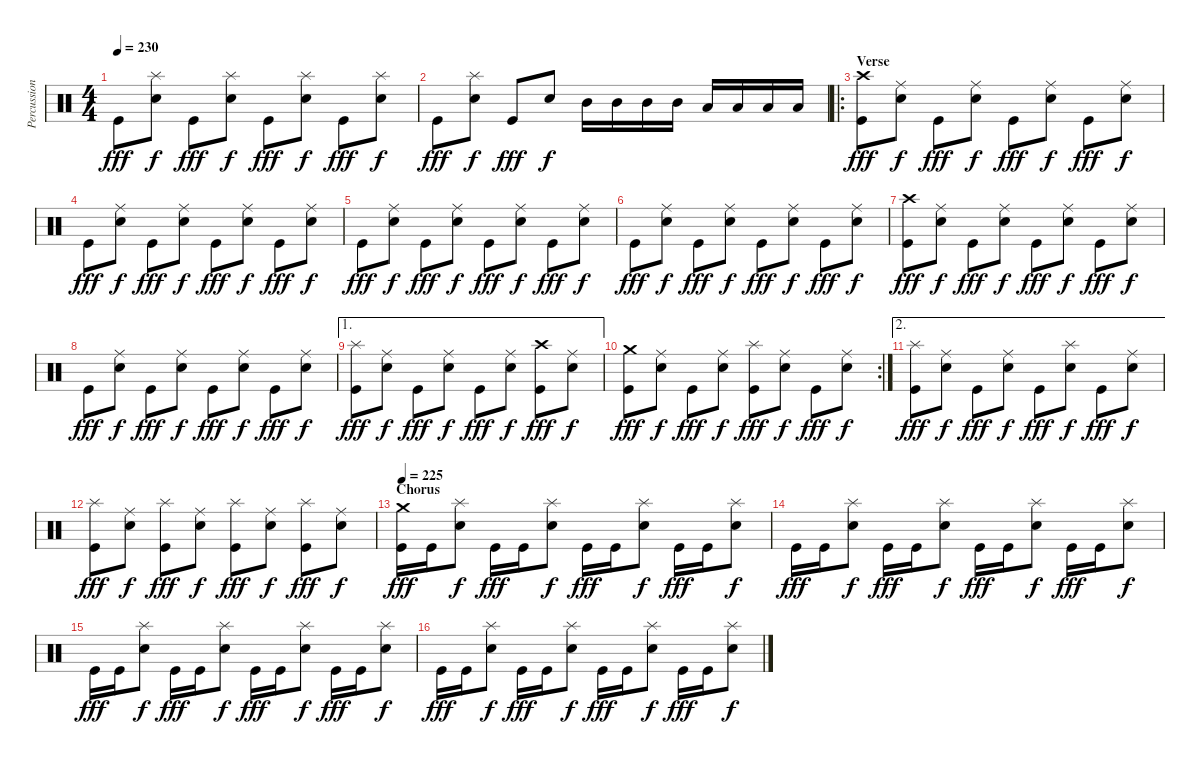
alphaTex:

\track ("Percussion" "Percussion") {instrument percussion}
\staff {score}
\articulation defaults
\ts (4 4)
\tempo 230
\clef neutral
\ks c "Kick (hit)".8{dy fff}
("Splash (hit)" "Electric Snare (hit)").8{dy f} "Kick (hit)".8{dy fff} ("Splash (hit)" "Electric Snare (hit)").8{dy f} "Kick (hit)".8{dy fff} ("Splash (hit)" "Electric Snare (hit)").8{dy f} "Kick (hit)".8{dy fff} ("Splash (hit)" "Electric Snare (hit)").8{dy f} |
"Kick (hit)".8{dy fff} ("Splash (hit)" "Electric Snare (hit)").8{dy f} "Kick (hit)".8{dy fff} "Electric Snare (hit)".8{dy f} "Mid Tom (hit)".16 "Mid Tom (hit)".16 "Mid Tom (hit)".16 "Mid Tom (hit)".16 "Low Tom (hit)".16 "Low Tom (hit)".16 "Low Tom (hit)".16 "Low Tom (hit)".16 |
\ro
\section ("" "Verse")
("Crash high (hit)" "Kick (hit)").8{dy fff} ("Ride (middle)" "Electric Snare (hit)").8{dy f} "Kick (hit)".8{dy fff} ("Ride (middle)" "Electric Snare (hit)").8{dy f} "Kick (hit)".8{dy fff} ("Ride (middle)" "Electric Snare (hit)").8{dy f} "Kick (hit)".8{dy fff} ("Ride (middle)" "Electric Snare (hit)").8{dy f} |
"Kick (hit)".8{dy fff} ("Ride (middle)" "Electric Snare (hit)").8{dy f} "Kick (hit)".8{dy fff} ("Ride (middle)" "Electric Snare (hit)").8{dy f} "Kick (hit)".8{dy fff} ("Ride (middle)" "Electric Snare (hit)").8{dy f} "Kick (hit)".8{dy fff} ("Ride (middle)" "Electric Snare (hit)").8{dy f} |
"Kick (hit)".8{dy fff} ("Ride (middle)" "Electric Snare (hit)").8{dy f} "Kick (hit)".8{dy fff} ("Ride (middle)" "Electric Snare (hit)").8{dy f} "Kick (hit)".8{dy fff} ("Ride (middle)" "Electric Snare (hit)").8{dy f} "Kick (hit)".8{dy fff} ("Ride (middle)" "Electric Snare (hit)").8{dy f} |
"Kick (hit)".8{dy fff} ("Ride (middle)" "Electric Snare (hit)").8{dy f} "Kick (hit)".8{dy fff} ("Ride (middle)" "Electric Snare (hit)").8{dy f} "Kick (hit)".8{dy fff} ("Ride (middle)" "Electric Snare (hit)").8{dy f} "Kick (hit)".8{dy fff} ("Ride (middle)" "Electric Snare (hit)").8{dy f} |
("Crash high (hit)" "Kick (hit)").8{dy fff} ("Ride (middle)" "Electric Snare (hit)").8{dy f} "Kick (hit)".8{dy fff} ("Ride (middle)" "Electric Snare (hit)").8{dy f} "Kick (hit)".8{dy fff} ("Ride (middle)" "Electric Snare (hit)").8{dy f} "Kick (hit)".8{dy fff} ("Ride (middle)" "Electric Snare (hit)").8{dy f} |
"Kick (hit)".8{dy fff} ("Ride (middle)" "Electric Snare (hit)").8{dy f} "Kick (hit)".8{dy fff} ("Ride (middle)" "Electric Snare (hit)").8{dy f} "Kick (hit)".8{dy fff} ("Ride (middle)" "Electric Snare (hit)").8{dy f} "Kick (hit)".8{dy fff} ("Ride (middle)" "Electric Snare (hit)").8{dy f} |
\ae 1
("Splash (hit)" "Kick (hit)").8{dy fff} ("Ride (middle)" "Electric Snare (hit)").8{dy f} "Kick (hit)".8{dy fff} ("Ride (middle)" "Electric Snare (hit)").8{dy f} "Kick (hit)".8{dy fff} ("Ride (middle)" "Electric Snare (hit)").8{dy f} ("Crash high (hit)" "Kick (hit)").8{dy fff} ("Ride (middle)" "Electric Snare (hit)").8{dy f} |
\rc 2
("Crash medium (hit)" "Kick (hit)").8{dy fff} ("Ride (middle)" "Electric Snare (hit)").8{dy f} "Kick (hit)".8{dy fff} ("Ride (middle)" "Electric Snare (hit)").8{dy f} ("Splash (hit)" "Kick (hit)").8{dy fff} ("Ride (middle)" "Electric Snare (hit)").8{dy f} "Kick (hit)".8{dy fff} ("Ride (middle)" "Electric Snare (hit)").8{dy f} |
\ae 2
("Splash (hit)" "Kick (hit)").8{dy fff} ("Ride (middle)" "Electric Snare (hit)").8{dy f} "Kick (hit)".8{dy fff} ("Ride (middle)" "Electric Snare (hit)").8{dy f} "Kick (hit)".8{dy fff} ("Splash (hit)" "Electric Snare (hit)").8{dy f} "Kick (hit)".8{dy fff} ("Ride (middle)" "Electric Snare (hit)").8{dy f} |
("Splash (hit)" "Kick (hit)").8{dy fff} ("Ride (middle)" "Electric Snare (hit)").8{dy f} ("Splash (hit)" "Kick (hit)").8{dy fff} ("Ride (middle)" "Electric Snare (hit)").8{dy f} ("Splash (hit)" "Kick (hit)").8{dy fff} ("Ride (middle)" "Electric Snare (hit)").8{dy f} ("Splash (hit)" "Kick (hit)").8{dy fff} ("Ride (middle)" "Electric Snare (hit)").8{dy f} |
\section ("" "Chorus")
\tempo 225
("Crash medium (hit)" "Kick (hit)").16{dy fff} "Kick (hit)".16 ("Splash (hit)" "Electric Snare (hit)").8{dy f} "Kick (hit)".16{dy fff} "Kick (hit)".16 ("Splash (hit)" "Electric Snare (hit)").8{dy f} "Kick (hit)".16{dy fff} "Kick (hit)".16 ("Splash (hit)" "Electric Snare (hit)").8{dy f} "Kick (hit)".16{dy fff} "Kick (hit)".16 ("Splash (hit)" "Electric Snare (hit)").8{dy f} |
"Kick (hit)".16{dy fff} "Kick (hit)".16 ("Splash (hit)" "Electric Snare (hit)").8{dy f} "Kick (hit)".16{dy fff} "Kick (hit)".16 ("Splash (hit)" "Electric Snare (hit)").8{dy f} "Kick (hit)".16{dy fff} "Kick (hit)".16 ("Splash (hit)" "Electric Snare (hit)").8{dy f} "Kick (hit)".16{dy fff} "Kick (hit)".16 ("Splash (hit)" "Electric Snare (hit)").8{dy f} |
"Kick (hit)".16{dy fff} "Kick (hit)".16 ("Splash (hit)" "Electric Snare (hit)").8{dy f} "Kick (hit)".16{dy fff} "Kick (hit)".16 ("Splash (hit)" "Electric Snare (hit)").8{dy f} "Kick (hit)".16{dy fff} "Kick (hit)".16 ("Splash (hit)" "Electric Snare (hit)").8{dy f} "Kick (hit)".16{dy fff} "Kick (hit)".16 ("Splash (hit)" "Electric Snare (hit)").8{dy f} |
"Kick (hit)".16{dy fff} "Kick (hit)".16 ("Splash (hit)" "Electric Snare (hit)").8{dy f} "Kick (hit)".16{dy fff} "Kick (hit)".16 ("Splash (hit)" "Electric Snare (hit)").8{dy f} "Kick (hit)".16{dy fff} "Kick (hit)".16 ("Splash (hit)" "Electric Snare (hit)").8{dy f} "Kick (hit)".16{dy fff} "Kick (hit)".16 ("Splash (hit)" "Electric Snare (hit)").8{dy f}
